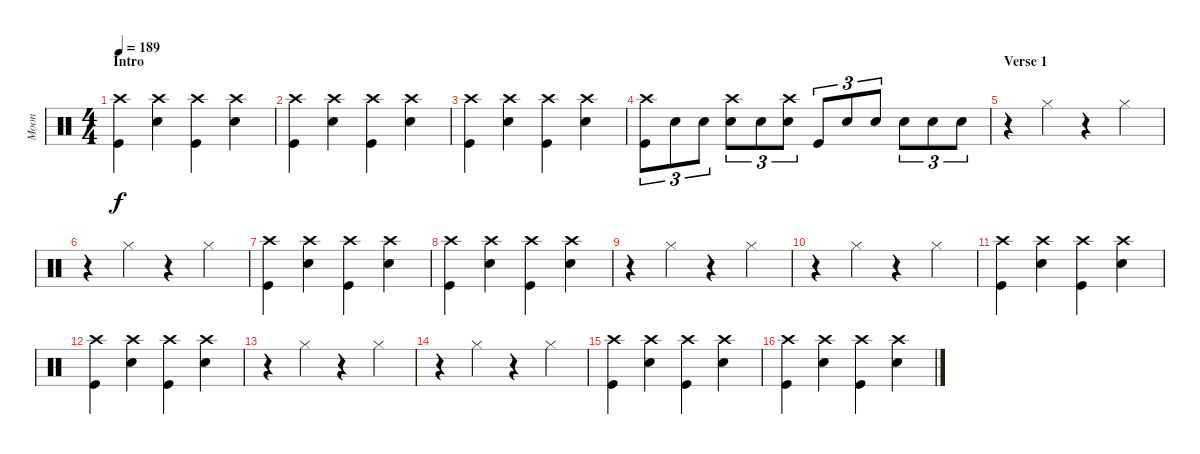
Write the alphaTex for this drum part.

\track ("Moon" "Moon") {instrument percussion}
\staff {score}
\articulation defaults
\ts (4 4)
\section ("" "Intro")
\tempo 189
\clef neutral
\ks c
("Crash high (hit)" "Kick (hit)").4{dy f} ("Crash high (hit)" "Snare (hit) 2").4 ("Crash high (hit)" "Kick (hit)").4 ("Crash high (hit)" "Snare (hit) 2").4 |
("Crash high (hit)" "Kick (hit)").4 ("Crash high (hit)" "Snare (hit) 2").4 ("Crash high (hit)" "Kick (hit)").4 ("Crash high (hit)" "Snare (hit) 2").4 |
("Crash high (hit)" "Kick (hit)").4 ("Crash high (hit)" "Snare (hit) 2").4 ("Crash high (hit)" "Kick (hit)").4 ("Crash high (hit)" "Snare (hit) 2").4 |
("Crash high (hit)" "Kick (hit)").8{tu (3 2)} "Snare (hit) 2".8{tu (3 2)} "Snare (hit) 2".8{tu (3 2)} ("Crash high (hit)" "Snare (hit) 2").8{tu (3 2)} "Snare (hit) 2".8{tu (3 2)} ("Crash high (hit)" "Snare (hit) 2").8{tu (3 2)} "Kick (hit)".8{tu (3 2)} "Snare (hit) 2".8{tu (3 2)} "Snare (hit) 2".8{tu (3 2)} "Snare (hit) 2".8{tu (3 2)} "Snare (hit) 2".8{tu (3 2)} "Snare (hit) 2".8{tu (3 2)} |
\section ("" "Verse 1")
r.4 "Hi-Hat (closed)".4 r.4 "Hi-Hat (closed)".4 |
r.4 "Hi-Hat (closed)".4 r.4 "Hi-Hat (closed)".4 |
("Crash high (hit)" "Kick (hit)").4 ("Crash high (hit)" "Snare (hit) 2").4 ("Crash high (hit)" "Kick (hit)").4 ("Crash high (hit)" "Snare (hit) 2").4 |
("Crash high (hit)" "Kick (hit)").4 ("Crash high (hit)" "Snare (hit) 2").4 ("Crash high (hit)" "Kick (hit)").4 ("Crash high (hit)" "Snare (hit) 2").4 |
r.4 "Hi-Hat (closed)".4 r.4 "Hi-Hat (closed)".4 |
r.4 "Hi-Hat (closed)".4 r.4 "Hi-Hat (closed)".4 |
("Crash high (hit)" "Kick (hit)").4 ("Crash high (hit)" "Snare (hit) 2").4 ("Crash high (hit)" "Kick (hit)").4 ("Crash high (hit)" "Snare (hit) 2").4 |
("Crash high (hit)" "Kick (hit)").4 ("Crash high (hit)" "Snare (hit) 2").4 ("Crash high (hit)" "Kick (hit)").4 ("Crash high (hit)" "Snare (hit) 2").4 |
r.4 "Hi-Hat (closed)".4 r.4 "Hi-Hat (closed)".4 |
r.4 "Hi-Hat (closed)".4 r.4 "Hi-Hat (closed)".4 |
("Crash high (hit)" "Kick (hit)").4 ("Crash high (hit)" "Snare (hit) 2").4 ("Crash high (hit)" "Kick (hit)").4 ("Crash high (hit)" "Snare (hit) 2").4 |
("Crash high (hit)" "Kick (hit)").4 ("Crash high (hit)" "Snare (hit) 2").4 ("Crash high (hit)" "Kick (hit)").4 ("Crash high (hit)" "Snare (hit) 2").4
